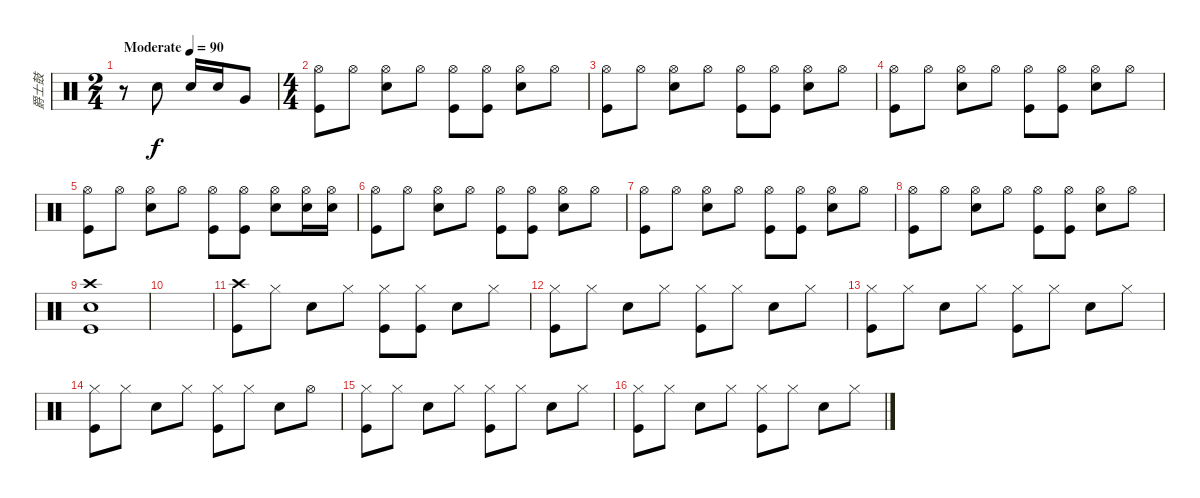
\track ("爵士鼓" "爵士鼓") {instrument percussion}
\staff {score}
\articulation defaults
\ts (2 4)
\tempo (90 "Moderate")
\clef neutral
\ks c
r.8{dy f} "Snare (hit) 2".8 "Snare (hit) 2".16 "Snare (hit) 2".16 "Very Low Tom (hit)".8 |
\ts (4 4)
("Hi-Hat (open)" "Kick (hit)").8 "Hi-Hat (open)".8 ("Hi-Hat (open)" "Snare (hit) 2").8 "Hi-Hat (open)".8 ("Hi-Hat (open)" "Kick (hit)").8 ("Hi-Hat (open)" "Kick (hit)").8 ("Hi-Hat (open)" "Snare (hit) 2").8 "Hi-Hat (open)".8 |
("Hi-Hat (open)" "Kick (hit)").8 "Hi-Hat (open)".8 ("Hi-Hat (open)" "Snare (hit) 2").8 "Hi-Hat (open)".8 ("Hi-Hat (open)" "Kick (hit)").8 ("Hi-Hat (open)" "Kick (hit)").8 ("Hi-Hat (open)" "Snare (hit) 2").8 "Hi-Hat (open)".8 |
("Hi-Hat (open)" "Kick (hit)").8 "Hi-Hat (open)".8 ("Hi-Hat (open)" "Snare (hit) 2").8 "Hi-Hat (open)".8 ("Hi-Hat (open)" "Kick (hit)").8 ("Hi-Hat (open)" "Kick (hit)").8 ("Hi-Hat (open)" "Snare (hit) 2").8 "Hi-Hat (open)".8 |
("Hi-Hat (open)" "Kick (hit)").8 "Hi-Hat (open)".8 ("Hi-Hat (open)" "Snare (hit) 2").8 "Hi-Hat (open)".8 ("Hi-Hat (open)" "Kick (hit)").8 ("Hi-Hat (open)" "Kick (hit)").8 ("Hi-Hat (open)" "Snare (hit) 2").8 ("Hi-Hat (open)" "Snare (hit) 2").16 ("Hi-Hat (open)" "Snare (hit) 2").16 |
("Hi-Hat (open)" "Kick (hit)").8 "Hi-Hat (open)".8 ("Hi-Hat (open)" "Snare (hit) 2").8 "Hi-Hat (open)".8 ("Hi-Hat (open)" "Kick (hit)").8 ("Hi-Hat (open)" "Kick (hit)").8 ("Hi-Hat (open)" "Snare (hit) 2").8 "Hi-Hat (open)".8 |
("Hi-Hat (open)" "Kick (hit)").8 "Hi-Hat (open)".8 ("Hi-Hat (open)" "Snare (hit) 2").8 "Hi-Hat (open)".8 ("Hi-Hat (open)" "Kick (hit)").8 ("Hi-Hat (open)" "Kick (hit)").8 ("Hi-Hat (open)" "Snare (hit) 2").8 "Hi-Hat (open)".8 |
("Hi-Hat (open)" "Kick (hit)").8 "Hi-Hat (open)".8 ("Hi-Hat (open)" "Snare (hit) 2").8 "Hi-Hat (open)".8 ("Hi-Hat (open)" "Kick (hit)").8 ("Hi-Hat (open)" "Kick (hit)").8 ("Hi-Hat (open)" "Snare (hit) 2").8 "Hi-Hat (open)".8 |
("Crash high (hit)" "Snare (hit) 2" "Kick (hit)").1 |
|
("Crash high (hit)" "Kick (hit)").8 "Hi-Hat (closed)".8 "Snare (hit) 2".8 "Hi-Hat (closed)".8 ("Hi-Hat (closed)" "Kick (hit)").8 ("Hi-Hat (closed)" "Kick (hit)").8 "Snare (hit) 2".8 "Hi-Hat (closed)".8 |
("Hi-Hat (closed)" "Kick (hit)").8 "Hi-Hat (closed)".8 "Snare (hit) 2".8 "Hi-Hat (closed)".8 ("Hi-Hat (closed)" "Kick (hit)").8 "Hi-Hat (closed)".8 "Snare (hit) 2".8 "Hi-Hat (closed)".8 |
("Hi-Hat (closed)" "Kick (hit)").8 "Hi-Hat (closed)".8 "Snare (hit) 2".8 "Hi-Hat (closed)".8 ("Hi-Hat (closed)" "Kick (hit)").8 "Hi-Hat (closed)".8 "Snare (hit) 2".8 "Hi-Hat (closed)".8 |
("Hi-Hat (closed)" "Kick (hit)").8 "Hi-Hat (closed)".8 "Snare (hit) 2".8 "Hi-Hat (closed)".8 ("Hi-Hat (closed)" "Kick (hit)").8 "Hi-Hat (closed)".8 "Snare (hit) 2".8 "Hi-Hat (open)".8 |
("Hi-Hat (closed)" "Kick (hit)").8 "Hi-Hat (closed)".8 "Snare (hit) 2".8 "Hi-Hat (closed)".8 ("Hi-Hat (closed)" "Kick (hit)").8 "Hi-Hat (closed)".8 "Snare (hit) 2".8 "Hi-Hat (closed)".8 |
("Hi-Hat (closed)" "Kick (hit)").8 "Hi-Hat (closed)".8 "Snare (hit) 2".8 "Hi-Hat (closed)".8 ("Hi-Hat (closed)" "Kick (hit)").8 "Hi-Hat (closed)".8 "Snare (hit) 2".8 "Hi-Hat (closed)".8
